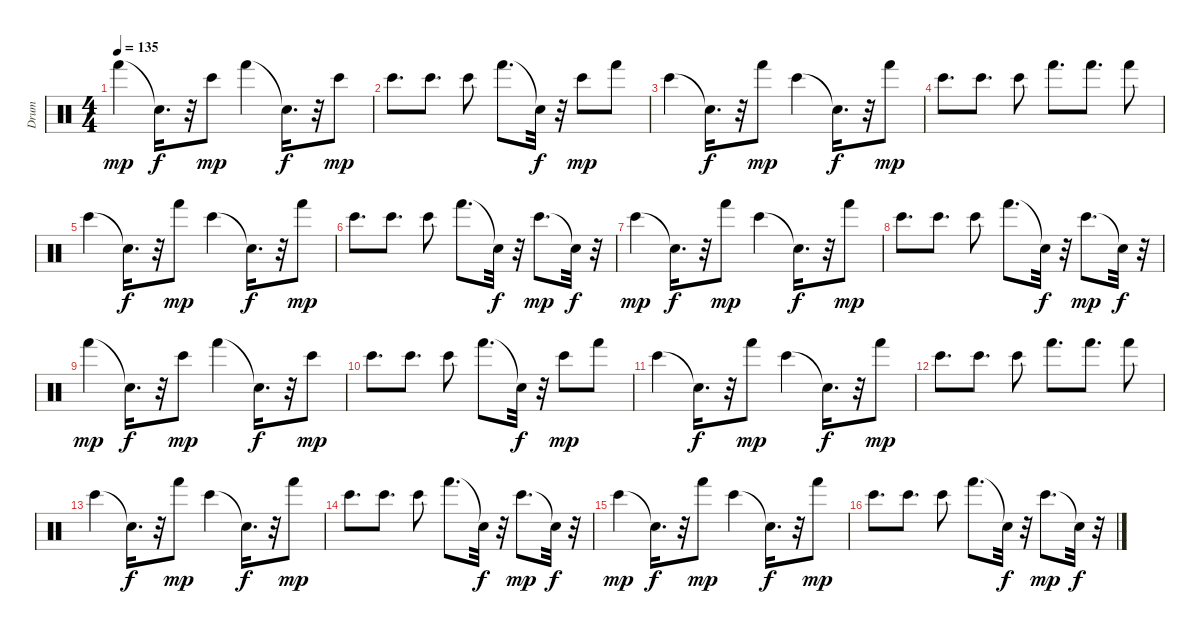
\track ("Drum" "Drum") {instrument percussion}
\staff {score}
\articulation defaults
\ts (4 4)
\tempo 135
\clef neutral
\ks c "Hand (hit)".4{dy mp} "Snare (hit)"{t}.16{d dy f}
r.32 "Bongo High (hit)".8{dy mp} "Hand (hit)".4 "Snare (hit)"{t}.16{d dy f} r.32 "Bongo High (hit)".8{dy mp} |
"Bongo High (hit)".8{d} "Bongo High (hit)".8{d} "Bongo High (hit)".8 "Hand (hit)".8{d} "Snare (hit)"{t}.32{dy f} r.32 "Bongo High (hit)".8{dy mp} "Hand (hit)".8 |
"Bongo High (hit)".4 "Snare (hit)"{t}.16{d dy f} r.32 "Hand (hit)".8{dy mp} "Bongo High (hit)".4 "Snare (hit)"{t}.16{d dy f} r.32 "Hand (hit)".8{dy mp} |
"Bongo High (hit)".8{d} "Bongo High (hit)".8{d} "Bongo High (hit)".8 "Hand (hit)".8{d} "Hand (hit)".8{d} "Hand (hit)".8 |
"Bongo High (hit)".4 "Snare (hit)"{t}.16{d dy f} r.32 "Hand (hit)".8{dy mp} "Bongo High (hit)".4 "Snare (hit)"{t}.16{d dy f} r.32 "Hand (hit)".8{dy mp} |
"Bongo High (hit)".8{d} "Bongo High (hit)".8{d} "Bongo High (hit)".8 "Hand (hit)".8{d} "Snare (hit)"{t}.32{dy f} r.32 "Bongo High (hit)".8{d dy mp} "Snare (hit)"{t}.32{dy f} r.32 |
"Bongo High (hit)".4{dy mp} "Snare (hit)"{t}.16{d dy f} r.32 "Hand (hit)".8{dy mp} "Bongo High (hit)".4 "Snare (hit)"{t}.16{d dy f} r.32 "Hand (hit)".8{dy mp} |
"Bongo High (hit)".8{d} "Bongo High (hit)".8{d} "Bongo High (hit)".8 "Hand (hit)".8{d} "Snare (hit)"{t}.32{dy f} r.32 "Bongo High (hit)".8{d dy mp} "Snare (hit)"{t}.32{dy f} r.32 |
"Hand (hit)".4{dy mp} "Snare (hit)"{t}.16{d dy f} r.32 "Bongo High (hit)".8{dy mp} "Hand (hit)".4 "Snare (hit)"{t}.16{d dy f} r.32 "Bongo High (hit)".8{dy mp} |
"Bongo High (hit)".8{d} "Bongo High (hit)".8{d} "Bongo High (hit)".8 "Hand (hit)".8{d} "Snare (hit)"{t}.32{dy f} r.32 "Bongo High (hit)".8{dy mp} "Hand (hit)".8 |
"Bongo High (hit)".4 "Snare (hit)"{t}.16{d dy f} r.32 "Hand (hit)".8{dy mp} "Bongo High (hit)".4 "Snare (hit)"{t}.16{d dy f} r.32 "Hand (hit)".8{dy mp} |
"Bongo High (hit)".8{d} "Bongo High (hit)".8{d} "Bongo High (hit)".8 "Hand (hit)".8{d} "Hand (hit)".8{d} "Hand (hit)".8 |
"Bongo High (hit)".4 "Snare (hit)"{t}.16{d dy f} r.32 "Hand (hit)".8{dy mp} "Bongo High (hit)".4 "Snare (hit)"{t}.16{d dy f} r.32 "Hand (hit)".8{dy mp} |
"Bongo High (hit)".8{d} "Bongo High (hit)".8{d} "Bongo High (hit)".8 "Hand (hit)".8{d} "Snare (hit)"{t}.32{dy f} r.32 "Bongo High (hit)".8{d dy mp} "Snare (hit)"{t}.32{dy f} r.32 |
"Bongo High (hit)".4{dy mp} "Snare (hit)"{t}.16{d dy f} r.32 "Hand (hit)".8{dy mp} "Bongo High (hit)".4 "Snare (hit)"{t}.16{d dy f} r.32 "Hand (hit)".8{dy mp} |
"Bongo High (hit)".8{d} "Bongo High (hit)".8{d} "Bongo High (hit)".8 "Hand (hit)".8{d} "Snare (hit)"{t}.32{dy f} r.32 "Bongo High (hit)".8{d dy mp} "Snare (hit)"{t}.32{dy f} r.32
